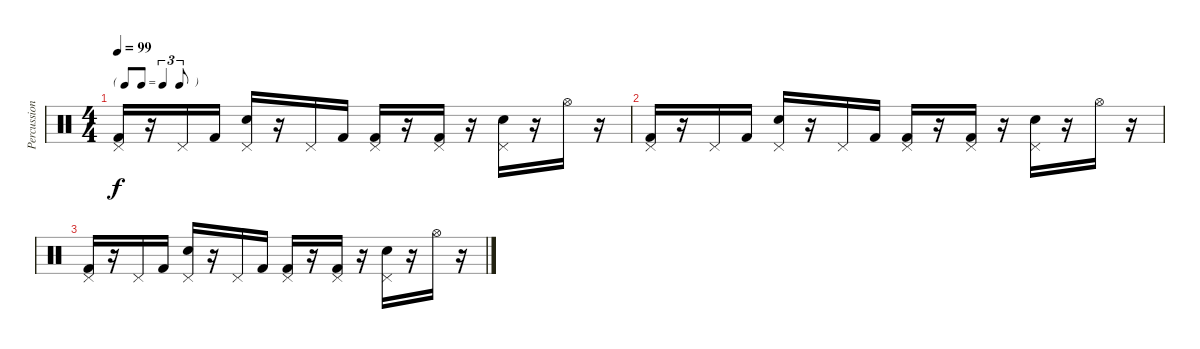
\track ("Percussion" "Percussion") {instrument percussion}
\staff {score}
\articulation defaults
\ts (4 4)
\tf triplet8th
\tempo 99
\clef neutral
\ks c
("Pedal Hi-Hat (hit)" "Kick (hit) 2").16{dy f} r.16 "Pedal Hi-Hat (hit)".16 "Kick (hit) 2".16 ("Pedal Hi-Hat (hit)" "Electric Snare (hit)").16 r.16 "Pedal Hi-Hat (hit)".16 "Kick (hit) 2".16 ("Pedal Hi-Hat (hit)" "Kick (hit) 2").16 r.16 ("Pedal Hi-Hat (hit)" "Kick (hit) 2").16 r.16 ("Pedal Hi-Hat (hit)" "Electric Snare (hit)").16 r.16 "Hi-Hat (open)".16 r.16 |
("Pedal Hi-Hat (hit)" "Kick (hit) 2").16 r.16 "Pedal Hi-Hat (hit)".16 "Kick (hit) 2".16 ("Pedal Hi-Hat (hit)" "Electric Snare (hit)").16 r.16 "Pedal Hi-Hat (hit)".16 "Kick (hit) 2".16 ("Pedal Hi-Hat (hit)" "Kick (hit) 2").16 r.16 ("Pedal Hi-Hat (hit)" "Kick (hit) 2").16 r.16 ("Pedal Hi-Hat (hit)" "Electric Snare (hit)").16 r.16 "Hi-Hat (open)".16 r.16 |
("Pedal Hi-Hat (hit)" "Kick (hit) 2").16 r.16 "Pedal Hi-Hat (hit)".16 "Kick (hit) 2".16 ("Pedal Hi-Hat (hit)" "Electric Snare (hit)").16 r.16 "Pedal Hi-Hat (hit)".16 "Kick (hit) 2".16 ("Pedal Hi-Hat (hit)" "Kick (hit) 2").16 r.16 ("Pedal Hi-Hat (hit)" "Kick (hit) 2").16 r.16 ("Pedal Hi-Hat (hit)" "Electric Snare (hit)").16 r.16 "Hi-Hat (open)".16 r.16
